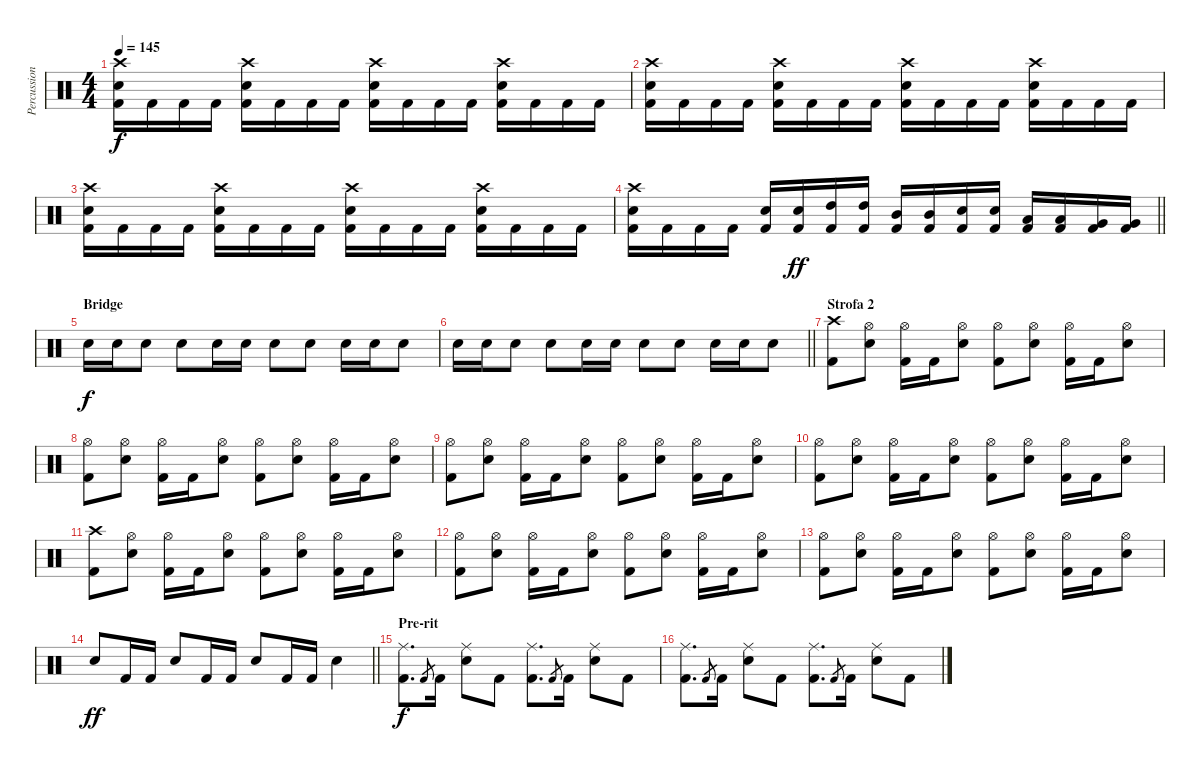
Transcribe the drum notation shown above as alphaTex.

\track ("Percussioni" "Percussion") {instrument percussion}
\staff {score}
\articulation defaults
\ts (4 4)
\tempo 145
\clef neutral
\ks c
("Crash high (hit)" "Kick (hit) 2" "Snare (hit) 2").16{dy f} "Kick (hit) 2".16 "Kick (hit) 2".16 "Kick (hit) 2".16 ("Crash high (hit)" "Kick (hit) 2" "Snare (hit) 2").16 "Kick (hit) 2".16 "Kick (hit) 2".16 "Kick (hit) 2".16 ("Crash high (hit)" "Kick (hit) 2" "Snare (hit) 2").16 "Kick (hit) 2".16 "Kick (hit) 2".16 "Kick (hit) 2".16 ("Crash high (hit)" "Kick (hit) 2" "Snare (hit) 2").16 "Kick (hit) 2".16 "Kick (hit) 2".16 "Kick (hit) 2".16 |
("Crash high (hit)" "Kick (hit) 2" "Snare (hit) 2").16 "Kick (hit) 2".16 "Kick (hit) 2".16 "Kick (hit) 2".16 ("Crash high (hit)" "Kick (hit) 2" "Snare (hit) 2").16 "Kick (hit) 2".16 "Kick (hit) 2".16 "Kick (hit) 2".16 ("Crash high (hit)" "Kick (hit) 2" "Snare (hit) 2").16 "Kick (hit) 2".16 "Kick (hit) 2".16 "Kick (hit) 2".16 ("Crash high (hit)" "Kick (hit) 2" "Snare (hit) 2").16 "Kick (hit) 2".16 "Kick (hit) 2".16 "Kick (hit) 2".16 |
("Crash high (hit)" "Kick (hit) 2" "Snare (hit) 2").16 "Kick (hit) 2".16 "Kick (hit) 2".16 "Kick (hit) 2".16 ("Crash high (hit)" "Kick (hit) 2" "Snare (hit) 2").16 "Kick (hit) 2".16 "Kick (hit) 2".16 "Kick (hit) 2".16 ("Crash high (hit)" "Kick (hit) 2" "Snare (hit) 2").16 "Kick (hit) 2".16 "Kick (hit) 2".16 "Kick (hit) 2".16 ("Crash high (hit)" "Kick (hit) 2" "Snare (hit) 2").16 "Kick (hit) 2".16 "Kick (hit) 2".16 "Kick (hit) 2".16 |
\barLineRight lightlight
("Crash high (hit)" "Kick (hit) 2" "Snare (hit) 2").16 "Kick (hit) 2".16 "Kick (hit) 2".16 "Kick (hit) 2".16 ("Kick (hit) 2" "Snare (hit) 2").16 ("Kick (hit) 2" "Snare (hit) 2").16{dy ff} ("High Tom (hit)" "Kick (hit) 2").16 ("High Tom (hit)" "Kick (hit) 2").16 ("Mid Tom (hit)" "Kick (hit) 2").16 ("Mid Tom (hit)" "Kick (hit) 2").16 ("Kick (hit) 2" "Snare (hit) 2").16 ("Kick (hit) 2" "Snare (hit) 2").16 ("Low Tom (hit)" "Kick (hit) 2").16 ("Low Tom (hit)" "Kick (hit) 2").16 ("Very Low Tom (hit)" "Kick (hit) 2").16 ("Very Low Tom (hit)" "Kick (hit) 2").16 |
\section ("" "Bridge")
"Snare (hit) 2".16{dy f} "Snare (hit) 2".16 "Snare (hit) 2".8 "Snare (hit) 2".8 "Snare (hit) 2".16 "Snare (hit) 2".16 "Snare (hit) 2".8 "Snare (hit) 2".8 "Snare (hit) 2".16 "Snare (hit) 2".16 "Snare (hit) 2".8 |
\barLineRight lightlight "Snare (hit) 2".16 "Snare (hit) 2".16 "Snare (hit) 2".8 "Snare (hit) 2".8 "Snare (hit) 2".16 "Snare (hit) 2".16 "Snare (hit) 2".8 "Snare (hit) 2".8 "Snare (hit) 2".16 "Snare (hit) 2".16 "Snare (hit) 2".8
|
\section ("" "Strofa 2")
("Crash high (hit)" "Kick (hit) 2").8 ("Hi-Hat (open)" "Snare (hit) 2").8 ("Hi-Hat (open)" "Kick (hit) 2").16 "Kick (hit) 2".16 ("Hi-Hat (open)" "Snare (hit) 2").8 ("Hi-Hat (open)" "Kick (hit) 2").8 ("Hi-Hat (open)" "Snare (hit) 2").8 ("Hi-Hat (open)" "Kick (hit) 2").16 "Kick (hit) 2".16 ("Hi-Hat (open)" "Snare (hit) 2").8 |
("Hi-Hat (open)" "Kick (hit) 2").8 ("Hi-Hat (open)" "Snare (hit) 2").8 ("Hi-Hat (open)" "Kick (hit) 2").16 "Kick (hit) 2".16 ("Hi-Hat (open)" "Snare (hit) 2").8 ("Hi-Hat (open)" "Kick (hit) 2").8 ("Hi-Hat (open)" "Snare (hit) 2").8 ("Hi-Hat (open)" "Kick (hit) 2").16 "Kick (hit) 2".16 ("Hi-Hat (open)" "Snare (hit) 2").8 |
("Hi-Hat (open)" "Kick (hit) 2").8 ("Hi-Hat (open)" "Snare (hit) 2").8 ("Hi-Hat (open)" "Kick (hit) 2").16 "Kick (hit) 2".16 ("Hi-Hat (open)" "Snare (hit) 2").8 ("Hi-Hat (open)" "Kick (hit) 2").8 ("Hi-Hat (open)" "Snare (hit) 2").8 ("Hi-Hat (open)" "Kick (hit) 2").16 "Kick (hit) 2".16 ("Hi-Hat (open)" "Snare (hit) 2").8 |
("Hi-Hat (open)" "Kick (hit) 2").8 ("Hi-Hat (open)" "Snare (hit) 2").8 ("Hi-Hat (open)" "Kick (hit) 2").16 "Kick (hit) 2".16 ("Hi-Hat (open)" "Snare (hit) 2").8 ("Hi-Hat (open)" "Kick (hit) 2").8 ("Hi-Hat (open)" "Snare (hit) 2").8 ("Hi-Hat (open)" "Kick (hit) 2").16 "Kick (hit) 2".16 ("Hi-Hat (open)" "Snare (hit) 2").8 |
("Crash high (hit)" "Kick (hit) 2").8 ("Hi-Hat (open)" "Snare (hit) 2").8 ("Hi-Hat (open)" "Kick (hit) 2").16 "Kick (hit) 2".16 ("Hi-Hat (open)" "Snare (hit) 2").8 ("Hi-Hat (open)" "Kick (hit) 2").8 ("Hi-Hat (open)" "Snare (hit) 2").8 ("Hi-Hat (open)" "Kick (hit) 2").16 "Kick (hit) 2".16 ("Hi-Hat (open)" "Snare (hit) 2").8 |
("Hi-Hat (open)" "Kick (hit) 2").8 ("Hi-Hat (open)" "Snare (hit) 2").8 ("Hi-Hat (open)" "Kick (hit) 2").16 "Kick (hit) 2".16 ("Hi-Hat (open)" "Snare (hit) 2").8 ("Hi-Hat (open)" "Kick (hit) 2").8 ("Hi-Hat (open)" "Snare (hit) 2").8 ("Hi-Hat (open)" "Kick (hit) 2").16 "Kick (hit) 2".16 ("Hi-Hat (open)" "Snare (hit) 2").8 |
("Hi-Hat (open)" "Kick (hit) 2").8 ("Hi-Hat (open)" "Snare (hit) 2").8 ("Hi-Hat (open)" "Kick (hit) 2").16 "Kick (hit) 2".16 ("Hi-Hat (open)" "Snare (hit) 2").8 ("Hi-Hat (open)" "Kick (hit) 2").8 ("Hi-Hat (open)" "Snare (hit) 2").8 ("Hi-Hat (open)" "Kick (hit) 2").16 "Kick (hit) 2".16 ("Hi-Hat (open)" "Snare (hit) 2").8 |
\barLineRight lightlight "Snare (hit) 2".8{dy ff} "Kick (hit) 2".16 "Kick (hit) 2".16 "Snare (hit) 2".8 "Kick (hit) 2".16 "Kick (hit) 2".16 "Snare (hit) 2".8 "Kick (hit) 2".16 "Kick (hit) 2".16 "Snare (hit) 2".4
|
\section ("" "Pre-rit")
("Ride (middle)" "Kick (hit) 2").8{d dy f} "Kick (hit) 2".8{gr} "Kick (hit) 2".16 ("Ride (middle)" "Snare (hit) 2").8 "Kick (hit) 2".8 ("Ride (middle)" "Kick (hit) 2").8{d} "Kick (hit) 2".8{gr} "Kick (hit) 2".16 ("Ride (middle)" "Snare (hit) 2").8 "Kick (hit) 2".8 |
("Ride (middle)" "Kick (hit) 2").8{d} "Kick (hit) 2".8{gr} "Kick (hit) 2".16 ("Ride (middle)" "Snare (hit) 2").8 "Kick (hit) 2".8 ("Ride (middle)" "Kick (hit) 2").8{d} "Kick (hit) 2".8{gr} "Kick (hit) 2".16 ("Ride (middle)" "Snare (hit) 2").8 "Kick (hit) 2".8
